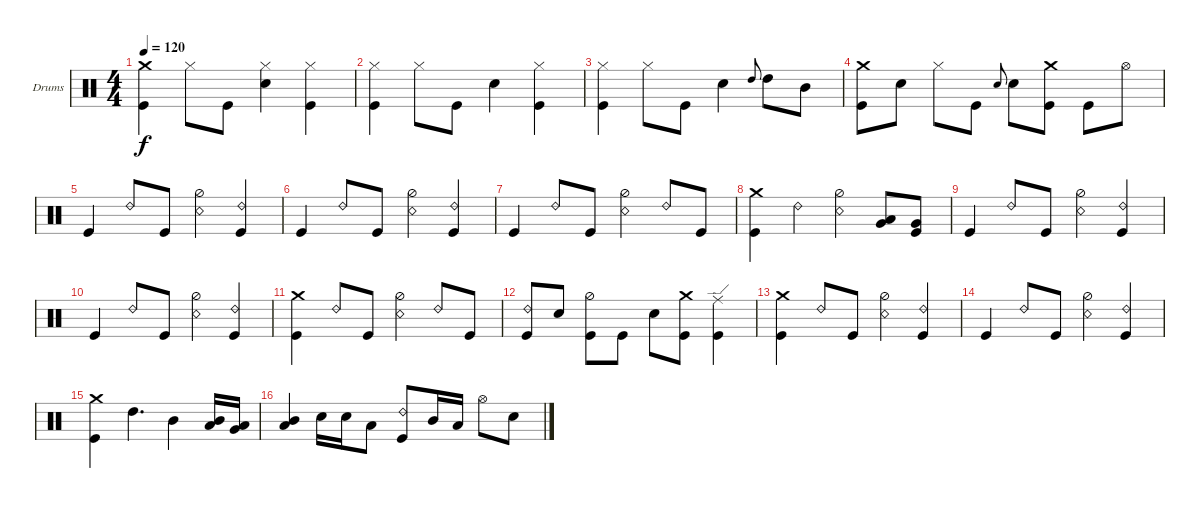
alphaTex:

\bracketExtendMode groupsimilarinstruments
\firstSystemTrackNameOrientation horizontal
\otherSystemsTrackNameOrientation horizontal
\track ("Drumkit" "Drums") {instrument percussion}
\staff {score}
\articulation defaults
\ts (4 4)
\tempo 120
\clef neutral
\scale
0.333333
\ks c
("Kick (hit)" "Crash medium (hit)").4{dy f} "Hi-Hat (closed)".8 "Kick (hit)".8 ("Snare (hit) 2" "Hi-Hat (closed)").4 ("Hi-Hat (closed)" "Kick (hit)").4 |
\scale
0.333333 ("Kick (hit)" "Hi-Hat (closed)").4 "Hi-Hat (closed)".8 "Kick (hit)".8 "Snare (hit) 2".4 ("Kick (hit)" "Hi-Hat (closed)").4 |
\scale
0.333333 ("Kick (hit)" "Hi-Hat (closed)").4 "Hi-Hat (closed)".8 "Kick (hit)".8 "Snare (hit) 2".4 "High Tom (hit)".8{gr onbeat} "High Tom (hit)".8 "Mid Tom (hit)".8 |
\scale
0.333333 ("Kick (hit)" "Crash medium (hit)").8 "Snare (hit) 2".8 "Hi-Hat (closed)".8 "Kick (hit)".8 "Snare (hit) 2".8{gr onbeat} "Snare (hit) 2".8 ("Kick (hit)" "Crash medium (hit)").8 "Kick (hit)".8 "Hi-Hat (open)".8 |
\scale
0.333333 "Kick (hit)".4 "Ride (bell) 2".8 "Kick (hit)".8 ("Snare (rim shot)" "Hi-Hat (half)").4 ("Kick (hit)" "Ride (bell) 2").4 |
\scale
0.333333 "Kick (hit)".4 "Ride (bell) 2".8 "Kick (hit)".8 ("Snare (rim shot)" "Hi-Hat (half)").4 ("Kick (hit)" "Ride (bell) 2").4 |
\scale
0.333333 "Kick (hit)".4 "Ride (bell) 2".8 "Kick (hit)".8 ("Snare (rim shot)" "Hi-Hat (half)").4 "Ride (bell) 2".8 "Kick (hit)".8 |
\scale
0.333333 ("Kick (hit)" "Crash medium (hit)").4 "Ride (bell) 2".4 ("Snare (rim shot)" "Hi-Hat (half)").4 ("Low Tom (hit)" "Very Low Tom (hit)").8 ("Very Low Tom (hit)" "Kick (hit)").8 |
\scale
0.333333 "Kick (hit)".4 "Ride (bell) 2".8 "Kick (hit)".8 ("Snare (rim shot)" "Hi-Hat (half)").4 ("Kick (hit)" "Ride (bell) 2").4 |
\scale
0.333333 "Kick (hit)".4 "Ride (bell) 2".8 "Kick (hit)".8 ("Snare (rim shot)" "Hi-Hat (half)").4 ("Kick (hit)" "Ride (bell) 2").4 |
\scale
0.333333 ("Kick (hit)" "Crash medium (hit)").4 "Ride (bell) 2".8 "Kick (hit)".8 ("Snare (rim shot)" "Hi-Hat (half)").4 "Ride (bell) 2".8 "Kick (hit)".8 |
\scale
0.333333 ("Kick (hit)" "Ride (bell) 2").8 "Snare (hit) 2".8 ("Kick (hit)" "Hi-Hat (half)").8 "Kick (hit)".8 "Snare (hit) 2".8 ("Kick (hit)" "Crash medium (hit)").8 ("Kick (hit)" "Ride (edge)").4 |
\scale
0.333333 ("Kick (hit)" "Crash medium (hit)").4 "Ride (bell) 2".8 "Kick (hit)".8 ("Snare (rim shot)" "Hi-Hat (half)").4 ("Kick (hit)" "Ride (bell) 2").4 |
\scale
0.333333 "Kick (hit)".4 "Ride (bell) 2".8 "Kick (hit)".8 ("Snare (rim shot)" "Hi-Hat (half)").4 ("Kick (hit)" "Ride (bell) 2").4 |
\scale
0.333333 ("Kick (hit)" "Crash medium (hit)").4 "High Tom (hit)".4{d} "Mid Tom (hit)".4 ("Low Tom (hit)" "Mid Tom (hit)").16 ("Low Tom (hit)" "Very Low Tom (hit)").16 |
\scale
0.333333 ("Mid Tom (hit)" "Low Tom (hit)").4 "Snare (hit) 2".16 "Snare (hit) 2".16 "Low Tom (hit)".8 ("Kick (hit)" "Ride (bell) 2").8 "Mid Tom (hit)".16 "Low Tom (hit)".16 "Hi-Hat (open)".8 "Snare (hit) 2".8
